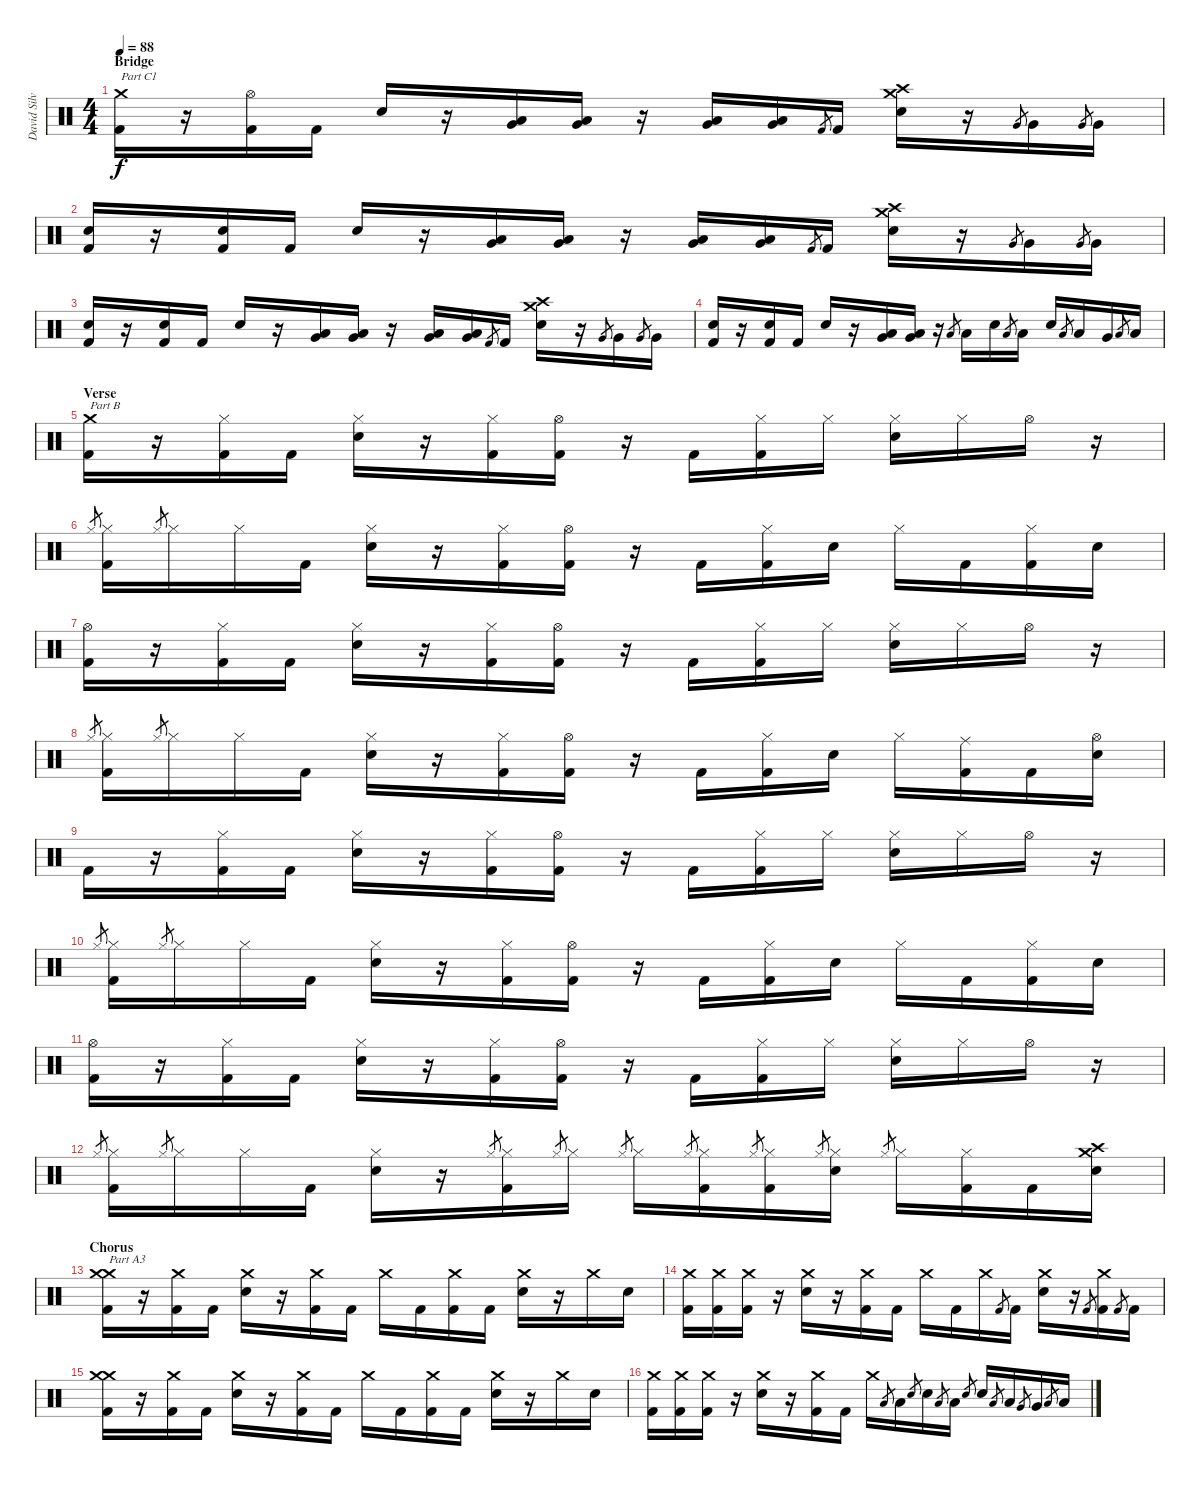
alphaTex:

\track ("David Silveria" "David Silv") {instrument percussion}
\staff {score}
\articulation defaults
\ts (4 4)
\section ("" "Bridge")
\tempo 88
\clef neutral
\ks c
("Crash medium (hit)" "Kick (hit) 2").16{txt "Part C1" dy f} r.16 ("Hi-Hat (open)" "Kick (hit) 2").16 "Kick (hit) 2".16 "Snare (hit) 2".16 r.16 ("Low Tom (hit)" "Very Low Tom (hit)").16 ("Low Tom (hit)" "Very Low Tom (hit)").16 r.16 ("Very Low Tom (hit)" "Low Floor Tom (hit)").16 ("Very Low Tom (hit)" "Low Floor Tom (hit)").16 "Kick (hit) 2".8{gr} "Kick (hit) 2".16 ("Crash medium (hit)" "Crash high (hit)" "Snare (hit) 2").16 r.16 "Very Low Tom (hit)".8{gr} "Very Low Tom (hit)".16 "Very Low Tom (hit)".8{gr} "Very Low Tom (hit)".16 |
("Snare (hit) 2" "Kick (hit) 2").16 r.16 ("Snare (hit) 2" "Kick (hit) 2").16 "Kick (hit) 2".16 "Snare (hit) 2".16 r.16 ("Low Tom (hit)" "Very Low Tom (hit)").16 ("Low Tom (hit)" "Very Low Tom (hit)").16 r.16 ("Very Low Tom (hit)" "Low Floor Tom (hit)").16 ("Very Low Tom (hit)" "Low Floor Tom (hit)").16 "Kick (hit) 2".8{gr} "Kick (hit) 2".16 ("Crash medium (hit)" "Crash high (hit)" "Snare (hit) 2").16 r.16 "Very Low Tom (hit)".8{gr} "Very Low Tom (hit)".16 "Very Low Tom (hit)".8{gr} "Very Low Tom (hit)".16 |
("Snare (hit) 2" "Kick (hit) 2").16 r.16 ("Snare (hit) 2" "Kick (hit) 2").16 "Kick (hit) 2".16 "Snare (hit) 2".16 r.16 ("Low Tom (hit)" "Very Low Tom (hit)").16 ("Low Tom (hit)" "Very Low Tom (hit)").16 r.16 ("Very Low Tom (hit)" "Low Floor Tom (hit)").16 ("Very Low Tom (hit)" "Low Floor Tom (hit)").16 "Kick (hit) 2".8{gr} "Kick (hit) 2".16 ("Crash medium (hit)" "Crash high (hit)" "Snare (hit) 2").16 r.16 "Very Low Tom (hit)".8{gr} "Very Low Tom (hit)".16 "Very Low Tom (hit)".8{gr} "Very Low Tom (hit)".16 |
("Snare (hit) 2" "Kick (hit) 2").16 r.16 ("Snare (hit) 2" "Kick (hit) 2").16 "Kick (hit) 2".16 "Snare (hit) 2".16 r.16 ("Low Tom (hit)" "Very Low Tom (hit)").16 ("Low Tom (hit)" "Very Low Tom (hit)").16 r.16 "Low Tom (hit)".8{gr} "Low Tom (hit)".16 "Snare (hit) 2".16 "Low Tom (hit)".8{gr} "Low Tom (hit)".16 "Snare (hit) 2".16 "Low Tom (hit)".8{gr} "Low Tom (hit)".16 "Very Low Tom (hit)".16 "Low Floor Tom (hit)".8{gr} "Low Floor Tom (hit)".16 |
\section ("" "Verse")
("Crash medium (hit)" "Kick (hit) 2").16{txt "Part B"} r.16 ("Hi-Hat (closed)" "Kick (hit) 2").16 "Kick (hit) 2".16 ("Hi-Hat (closed)" "Snare (hit) 2").16 r.16 ("Hi-Hat (closed)" "Kick (hit) 2").16 ("Hi-Hat (open)" "Kick (hit) 2").16 r.16 "Kick (hit) 2".16 ("Hi-Hat (closed)" "Kick (hit) 2").16 "Hi-Hat (closed)".16 ("Hi-Hat (closed)" "Snare (hit) 2").16 "Hi-Hat (closed)".16 "Hi-Hat (open)".16 r.16 |
"Hi-Hat (closed)".8{gr} ("Hi-Hat (closed)" "Kick (hit) 2").16 "Hi-Hat (closed)".8{gr} "Hi-Hat (closed)".16 "Hi-Hat (closed)".16 "Kick (hit) 2".16 ("Hi-Hat (closed)" "Snare (hit) 2").16 r.16 ("Hi-Hat (closed)" "Kick (hit) 2").16 ("Hi-Hat (open)" "Kick (hit) 2").16 r.16 "Kick (hit) 2".16 ("Hi-Hat (closed)" "Kick (hit) 2").16 "Snare (hit) 2".16 "Hi-Hat (closed)".16 "Kick (hit) 2".16 ("Hi-Hat (closed)" "Kick (hit) 2").16 "Snare (hit) 2".16 |
("Hi-Hat (open)" "Kick (hit) 2").16 r.16 ("Hi-Hat (closed)" "Kick (hit) 2").16 "Kick (hit) 2".16 ("Hi-Hat (closed)" "Snare (hit) 2").16 r.16 ("Hi-Hat (closed)" "Kick (hit) 2").16 ("Hi-Hat (open)" "Kick (hit) 2").16 r.16 "Kick (hit) 2".16 ("Hi-Hat (closed)" "Kick (hit) 2").16 "Hi-Hat (closed)".16 ("Hi-Hat (closed)" "Snare (hit) 2").16 "Hi-Hat (closed)".16 "Hi-Hat (open)".16 r.16 |
"Hi-Hat (closed)".8{gr} ("Hi-Hat (closed)" "Kick (hit) 2").16 "Hi-Hat (closed)".8{gr} "Hi-Hat (closed)".16 "Hi-Hat (closed)".16 "Kick (hit) 2".16 ("Hi-Hat (closed)" "Snare (hit) 2").16 r.16 ("Hi-Hat (closed)" "Kick (hit) 2").16 ("Hi-Hat (open)" "Kick (hit) 2").16 r.16 "Kick (hit) 2".16 ("Hi-Hat (closed)" "Kick (hit) 2").16 "Snare (hit) 2".16 "Hi-Hat (closed)".16 ("Ride (middle)" "Kick (hit) 2").16 "Kick (hit) 2".16 ("Hi-Hat (open)" "Snare (hit) 2").16 |
"Kick (hit) 2".16 r.16 ("Hi-Hat (closed)" "Kick (hit) 2").16 "Kick (hit) 2".16 ("Hi-Hat (closed)" "Snare (hit) 2").16 r.16 ("Hi-Hat (closed)" "Kick (hit) 2").16 ("Hi-Hat (open)" "Kick (hit) 2").16 r.16 "Kick (hit) 2".16 ("Hi-Hat (closed)" "Kick (hit) 2").16 "Hi-Hat (closed)".16 ("Hi-Hat (closed)" "Snare (hit) 2").16 "Hi-Hat (closed)".16 "Hi-Hat (open)".16 r.16 |
"Hi-Hat (closed)".8{gr} ("Hi-Hat (closed)" "Kick (hit) 2").16 "Hi-Hat (closed)".8{gr} "Hi-Hat (closed)".16 "Hi-Hat (closed)".16 "Kick (hit) 2".16 ("Hi-Hat (closed)" "Snare (hit) 2").16 r.16 ("Hi-Hat (closed)" "Kick (hit) 2").16 ("Hi-Hat (open)" "Kick (hit) 2").16 r.16 "Kick (hit) 2".16 ("Hi-Hat (closed)" "Kick (hit) 2").16 "Snare (hit) 2".16 "Hi-Hat (closed)".16 "Kick (hit) 2".16 ("Hi-Hat (closed)" "Kick (hit) 2").16 "Snare (hit) 2".16 |
("Hi-Hat (open)" "Kick (hit) 2").16 r.16 ("Hi-Hat (closed)" "Kick (hit) 2").16 "Kick (hit) 2".16 ("Hi-Hat (closed)" "Snare (hit) 2").16 r.16 ("Hi-Hat (closed)" "Kick (hit) 2").16 ("Hi-Hat (open)" "Kick (hit) 2").16 r.16 "Kick (hit) 2".16 ("Hi-Hat (closed)" "Kick (hit) 2").16 "Hi-Hat (closed)".16 ("Hi-Hat (closed)" "Snare (hit) 2").16 "Hi-Hat (closed)".16 "Hi-Hat (open)".16 r.16 |
"Hi-Hat (closed)".8{gr} ("Hi-Hat (closed)" "Kick (hit) 2").16 "Hi-Hat (closed)".8{gr} "Hi-Hat (closed)".16 "Hi-Hat (closed)".16 "Kick (hit) 2".16 ("Hi-Hat (closed)" "Snare (hit) 2").16 r.16 "Hi-Hat (closed)".8{gr} ("Hi-Hat (closed)" "Kick (hit) 2").16 "Hi-Hat (closed)".8{gr} "Hi-Hat (closed)".16 "Hi-Hat (closed)".8{gr} "Hi-Hat (closed)".16 "Hi-Hat (closed)".8{gr} ("Hi-Hat (closed)" "Kick (hit) 2").16 "Hi-Hat (closed)".8{gr} ("Hi-Hat (closed)" "Kick (hit) 2").16 "Hi-Hat (closed)".8{gr} ("Hi-Hat (closed)" "Snare (hit) 2").16 "Hi-Hat (closed)".8{gr} "Hi-Hat (closed)".16 ("Hi-Hat (closed)" "Kick (hit) 2").16 "Kick (hit) 2".16 ("Crash medium (hit)" "Crash high (hit)" "Snare (hit) 2").16 |
\section ("" "Chorus")
("Crash medium (hit)" "Crash medium (hit)" "Kick (hit) 2").16{txt "Part A3"} r.16 ("Crash medium (hit)" "Kick (hit) 2").16 "Kick (hit) 2".16 ("Crash medium (hit)" "Snare (hit) 2").16 r.16 ("Crash medium (hit)" "Kick (hit) 2").16 "Kick (hit) 2".16 "Crash medium (hit)".16 "Kick (hit) 2".16 ("Crash medium (hit)" "Kick (hit) 2").16 "Kick (hit) 2".16 ("Crash medium (hit)" "Snare (hit) 2").16 r.16 "Crash medium (hit)".16 "Snare (hit) 2".16 |
("Crash medium (hit)" "Kick (hit) 2").16 ("Crash medium (hit)" "Kick (hit) 2").16 ("Crash medium (hit)" "Kick (hit) 2").16 r.16 ("Crash medium (hit)" "Snare (hit) 2").16 r.16 ("Crash medium (hit)" "Kick (hit) 2").16 "Kick (hit) 2".16 "Crash medium (hit)".16 "Kick (hit) 2".16 "Crash medium (hit)".16 "Kick (hit) 2".8{gr} "Kick (hit) 2".16 ("Crash medium (hit)" "Snare (hit) 2").16 r.16 "Kick (hit) 2".8{gr} ("Crash medium (hit)" "Kick (hit) 2").16 "Kick (hit) 2".8{gr} "Kick (hit) 2".16 |
("Crash medium (hit)" "Crash medium (hit)" "Kick (hit) 2").16 r.16 ("Crash medium (hit)" "Kick (hit) 2").16 "Kick (hit) 2".16 ("Crash medium (hit)" "Snare (hit) 2").16 r.16 ("Crash medium (hit)" "Kick (hit) 2").16 "Kick (hit) 2".16 "Crash medium (hit)".16 "Kick (hit) 2".16 ("Crash medium (hit)" "Kick (hit) 2").16 "Kick (hit) 2".16 ("Crash medium (hit)" "Snare (hit) 2").16 r.16 "Crash medium (hit)".16 "Snare (hit) 2".16 |
("Crash medium (hit)" "Kick (hit) 2").16 ("Crash medium (hit)" "Kick (hit) 2").16 ("Crash medium (hit)" "Kick (hit) 2").16 r.16 ("Crash medium (hit)" "Snare (hit) 2").16 r.16 ("Crash medium (hit)" "Kick (hit) 2").16 "Kick (hit) 2".16 "Crash medium (hit)".16 "Low Tom (hit)".8{gr} "Low Tom (hit)".16 "Snare (hit) 2".8{gr} "Snare (hit) 2".16 "Low Tom (hit)".8{gr} "Low Tom (hit)".16 "Snare (hit) 2".8{gr} "Snare (hit) 2".16 "Low Tom (hit)".8{gr} "Low Tom (hit)".16 "Very Low Tom (hit)".8{gr} "Very Low Tom (hit)".16 "Low Floor Tom (hit)".8{gr} "Low Floor Tom (hit)".16
